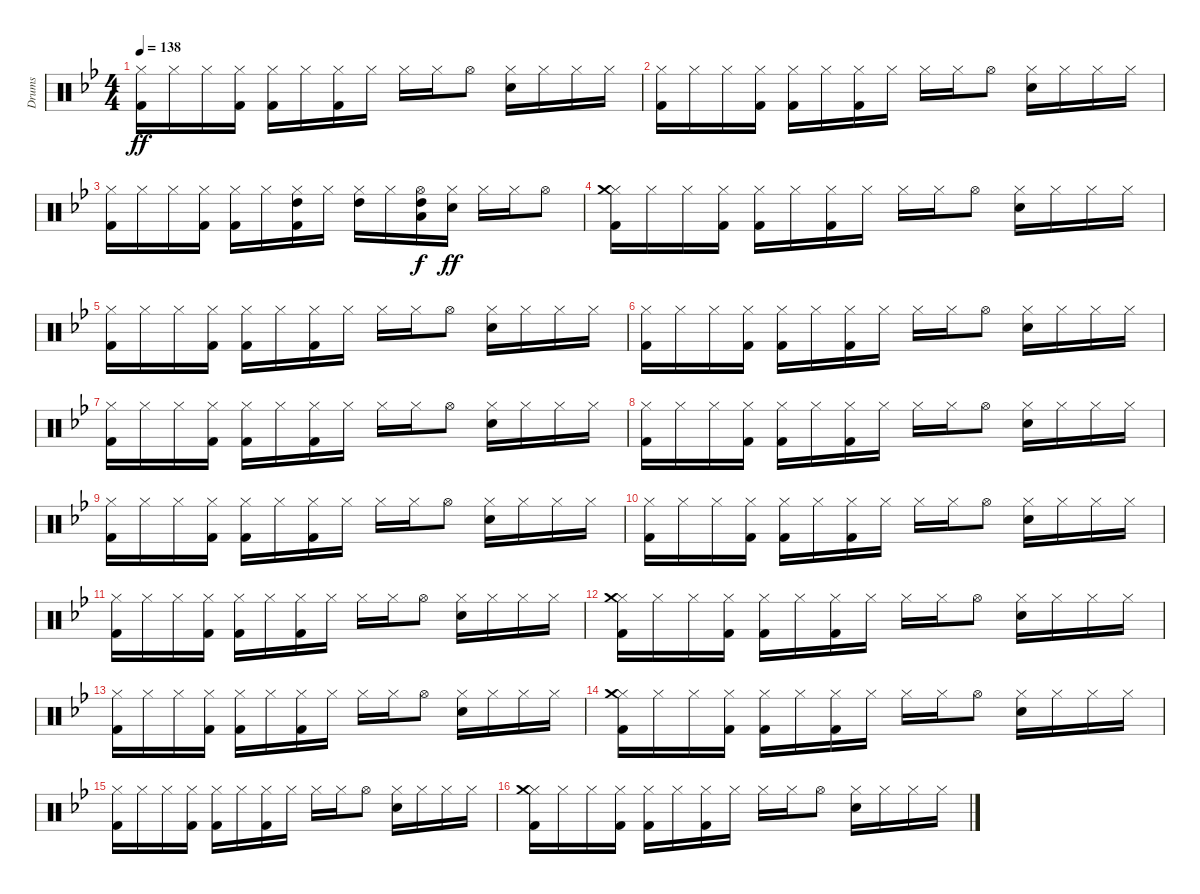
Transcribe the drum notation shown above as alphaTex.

\track ("Drums" "Drums") {instrument percussion}
\staff {score}
\articulation defaults
\ts (4 4)
\tempo 138
\clef neutral
\ks bb
("Kick (hit) 2" "Hi-Hat (closed)").16{dy ff} "Hi-Hat (closed)".16 "Hi-Hat (closed)".16 ("Kick (hit) 2" "Hi-Hat (closed)").16 ("Kick (hit) 2" "Hi-Hat (closed)").16 "Hi-Hat (closed)".16 ("Kick (hit) 2" "Hi-Hat (closed)").16 "Hi-Hat (closed)".16 "Hi-Hat (closed)".16 "Hi-Hat (closed)".16 "Hi-Hat (open)".8 ("Snare (hit) 2" "Hi-Hat (closed)").16 "Hi-Hat (closed)".16 "Hi-Hat (closed)".16 "Hi-Hat (closed)".16 |
("Kick (hit) 2" "Hi-Hat (closed)").16 "Hi-Hat (closed)".16 "Hi-Hat (closed)".16 ("Kick (hit) 2" "Hi-Hat (closed)").16 ("Kick (hit) 2" "Hi-Hat (closed)").16 "Hi-Hat (closed)".16 ("Kick (hit) 2" "Hi-Hat (closed)").16 "Hi-Hat (closed)".16 "Hi-Hat (closed)".16 "Hi-Hat (closed)".16 "Hi-Hat (open)".8 ("Snare (hit) 2" "Hi-Hat (closed)").16 "Hi-Hat (closed)".16 "Hi-Hat (closed)".16 "Hi-Hat (closed)".16 |
("Kick (hit) 2" "Hi-Hat (closed)").16 "Hi-Hat (closed)".16 "Hi-Hat (closed)".16 ("Kick (hit) 2" "Hi-Hat (closed)").16 ("Kick (hit) 2" "Hi-Hat (closed)").16 "Hi-Hat (closed)".16 ("Kick (hit) 2" "Hi-Hat (closed)" "High Tom (hit)").16 "Hi-Hat (closed)".16 ("Hi-Hat (closed)" "High Tom (hit)").16 "Hi-Hat (closed)".16 ("Low Tom (hit)" "Hi-Hat (open)" "High Tom (hit)").16{dy f} ("Snare (hit) 2" "Hi-Hat (closed)").16{dy ff} "Hi-Hat (closed)".16 "Hi-Hat (closed)".16 "Hi-Hat (open)".8 |
("Kick (hit) 2" "Hi-Hat (closed)" "Crash medium (hit)").16 "Hi-Hat (closed)".16 "Hi-Hat (closed)".16 ("Kick (hit) 2" "Hi-Hat (closed)").16 ("Kick (hit) 2" "Hi-Hat (closed)").16 "Hi-Hat (closed)".16 ("Kick (hit) 2" "Hi-Hat (closed)").16 "Hi-Hat (closed)".16 "Hi-Hat (closed)".16 "Hi-Hat (closed)".16 "Hi-Hat (open)".8 ("Snare (hit) 2" "Hi-Hat (closed)").16 "Hi-Hat (closed)".16 "Hi-Hat (closed)".16 "Hi-Hat (closed)".16 |
("Kick (hit) 2" "Hi-Hat (closed)").16 "Hi-Hat (closed)".16 "Hi-Hat (closed)".16 ("Kick (hit) 2" "Hi-Hat (closed)").16 ("Kick (hit) 2" "Hi-Hat (closed)").16 "Hi-Hat (closed)".16 ("Kick (hit) 2" "Hi-Hat (closed)").16 "Hi-Hat (closed)".16 "Hi-Hat (closed)".16 "Hi-Hat (closed)".16 "Hi-Hat (open)".8 ("Snare (hit) 2" "Hi-Hat (closed)").16 "Hi-Hat (closed)".16 "Hi-Hat (closed)".16 "Hi-Hat (closed)".16 |
("Kick (hit) 2" "Hi-Hat (closed)").16 "Hi-Hat (closed)".16 "Hi-Hat (closed)".16 ("Kick (hit) 2" "Hi-Hat (closed)").16 ("Kick (hit) 2" "Hi-Hat (closed)").16 "Hi-Hat (closed)".16 ("Kick (hit) 2" "Hi-Hat (closed)").16 "Hi-Hat (closed)".16 "Hi-Hat (closed)".16 "Hi-Hat (closed)".16 "Hi-Hat (open)".8 ("Snare (hit) 2" "Hi-Hat (closed)").16 "Hi-Hat (closed)".16 "Hi-Hat (closed)".16 "Hi-Hat (closed)".16 |
("Kick (hit) 2" "Hi-Hat (closed)").16 "Hi-Hat (closed)".16 "Hi-Hat (closed)".16 ("Kick (hit) 2" "Hi-Hat (closed)").16 ("Kick (hit) 2" "Hi-Hat (closed)").16 "Hi-Hat (closed)".16 ("Kick (hit) 2" "Hi-Hat (closed)").16 "Hi-Hat (closed)".16 "Hi-Hat (closed)".16 "Hi-Hat (closed)".16 "Hi-Hat (open)".8 ("Snare (hit) 2" "Hi-Hat (closed)").16 "Hi-Hat (closed)".16 "Hi-Hat (closed)".16 "Hi-Hat (closed)".16 |
("Kick (hit) 2" "Hi-Hat (closed)").16 "Hi-Hat (closed)".16 "Hi-Hat (closed)".16 ("Kick (hit) 2" "Hi-Hat (closed)").16 ("Kick (hit) 2" "Hi-Hat (closed)").16 "Hi-Hat (closed)".16 ("Kick (hit) 2" "Hi-Hat (closed)").16 "Hi-Hat (closed)".16 "Hi-Hat (closed)".16 "Hi-Hat (closed)".16 "Hi-Hat (open)".8 ("Snare (hit) 2" "Hi-Hat (closed)").16 "Hi-Hat (closed)".16 "Hi-Hat (closed)".16 "Hi-Hat (closed)".16 |
("Kick (hit) 2" "Hi-Hat (closed)").16 "Hi-Hat (closed)".16 "Hi-Hat (closed)".16 ("Kick (hit) 2" "Hi-Hat (closed)").16 ("Kick (hit) 2" "Hi-Hat (closed)").16 "Hi-Hat (closed)".16 ("Kick (hit) 2" "Hi-Hat (closed)").16 "Hi-Hat (closed)".16 "Hi-Hat (closed)".16 "Hi-Hat (closed)".16 "Hi-Hat (open)".8 ("Snare (hit) 2" "Hi-Hat (closed)").16 "Hi-Hat (closed)".16 "Hi-Hat (closed)".16 "Hi-Hat (closed)".16 |
("Kick (hit) 2" "Hi-Hat (closed)").16 "Hi-Hat (closed)".16 "Hi-Hat (closed)".16 ("Kick (hit) 2" "Hi-Hat (closed)").16 ("Kick (hit) 2" "Hi-Hat (closed)").16 "Hi-Hat (closed)".16 ("Kick (hit) 2" "Hi-Hat (closed)").16 "Hi-Hat (closed)".16 "Hi-Hat (closed)".16 "Hi-Hat (closed)".16 "Hi-Hat (open)".8 ("Snare (hit) 2" "Hi-Hat (closed)").16 "Hi-Hat (closed)".16 "Hi-Hat (closed)".16 "Hi-Hat (closed)".16 |
("Kick (hit) 2" "Hi-Hat (closed)").16 "Hi-Hat (closed)".16 "Hi-Hat (closed)".16 ("Kick (hit) 2" "Hi-Hat (closed)").16 ("Kick (hit) 2" "Hi-Hat (closed)").16 "Hi-Hat (closed)".16 ("Kick (hit) 2" "Hi-Hat (closed)").16 "Hi-Hat (closed)".16 "Hi-Hat (closed)".16 "Hi-Hat (closed)".16 "Hi-Hat (open)".8 ("Snare (hit) 2" "Hi-Hat (closed)").16 "Hi-Hat (closed)".16 "Hi-Hat (closed)".16 "Hi-Hat (closed)".16 |
("Kick (hit) 2" "Hi-Hat (closed)" "Crash medium (hit)").16 "Hi-Hat (closed)".16 "Hi-Hat (closed)".16 ("Kick (hit) 2" "Hi-Hat (closed)").16 ("Kick (hit) 2" "Hi-Hat (closed)").16 "Hi-Hat (closed)".16 ("Kick (hit) 2" "Hi-Hat (closed)").16 "Hi-Hat (closed)".16 "Hi-Hat (closed)".16 "Hi-Hat (closed)".16 "Hi-Hat (open)".8 ("Snare (hit) 2" "Hi-Hat (closed)").16 "Hi-Hat (closed)".16 "Hi-Hat (closed)".16 "Hi-Hat (closed)".16 |
("Kick (hit) 2" "Hi-Hat (closed)").16 "Hi-Hat (closed)".16 "Hi-Hat (closed)".16 ("Kick (hit) 2" "Hi-Hat (closed)").16 ("Kick (hit) 2" "Hi-Hat (closed)").16 "Hi-Hat (closed)".16 ("Kick (hit) 2" "Hi-Hat (closed)").16 "Hi-Hat (closed)".16 "Hi-Hat (closed)".16 "Hi-Hat (closed)".16 "Hi-Hat (open)".8 ("Snare (hit) 2" "Hi-Hat (closed)").16 "Hi-Hat (closed)".16 "Hi-Hat (closed)".16 "Hi-Hat (closed)".16 |
("Kick (hit) 2" "Hi-Hat (closed)" "Crash medium (hit)").16 "Hi-Hat (closed)".16 "Hi-Hat (closed)".16 ("Kick (hit) 2" "Hi-Hat (closed)").16 ("Kick (hit) 2" "Hi-Hat (closed)").16 "Hi-Hat (closed)".16 ("Kick (hit) 2" "Hi-Hat (closed)").16 "Hi-Hat (closed)".16 "Hi-Hat (closed)".16 "Hi-Hat (closed)".16 "Hi-Hat (open)".8 ("Snare (hit) 2" "Hi-Hat (closed)").16 "Hi-Hat (closed)".16 "Hi-Hat (closed)".16 "Hi-Hat (closed)".16 |
("Kick (hit) 2" "Hi-Hat (closed)").16 "Hi-Hat (closed)".16 "Hi-Hat (closed)".16 ("Kick (hit) 2" "Hi-Hat (closed)").16 ("Kick (hit) 2" "Hi-Hat (closed)").16 "Hi-Hat (closed)".16 ("Kick (hit) 2" "Hi-Hat (closed)").16 "Hi-Hat (closed)".16 "Hi-Hat (closed)".16 "Hi-Hat (closed)".16 "Hi-Hat (open)".8 ("Snare (hit) 2" "Hi-Hat (closed)").16 "Hi-Hat (closed)".16 "Hi-Hat (closed)".16 "Hi-Hat (closed)".16 |
("Kick (hit) 2" "Hi-Hat (closed)" "Crash medium (hit)").16 "Hi-Hat (closed)".16 "Hi-Hat (closed)".16 ("Kick (hit) 2" "Hi-Hat (closed)").16 ("Kick (hit) 2" "Hi-Hat (closed)").16 "Hi-Hat (closed)".16 ("Kick (hit) 2" "Hi-Hat (closed)").16 "Hi-Hat (closed)".16 "Hi-Hat (closed)".16 "Hi-Hat (closed)".16 "Hi-Hat (open)".8 ("Snare (hit) 2" "Hi-Hat (closed)").16 "Hi-Hat (closed)".16 "Hi-Hat (closed)".16 "Hi-Hat (closed)".16
